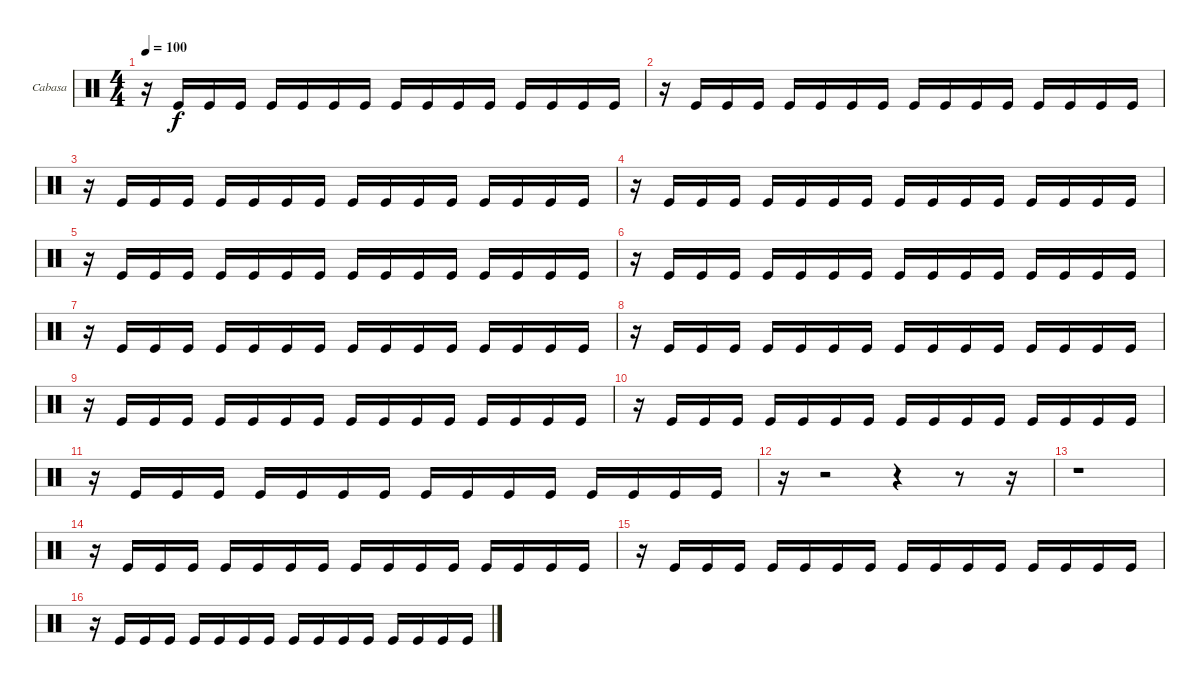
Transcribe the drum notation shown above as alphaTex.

\bracketExtendMode groupsimilarinstruments
\firstSystemTrackNameOrientation horizontal
\otherSystemsTrackNameOrientation horizontal
\track ("Cabasa" "Cabasa") {instrument percussion}
\staff {score}
\articulation defaults
\ts (4 4)
\tempo 100
\clef neutral
\ks c
r.16{dy f} "Kick (hit)".16 "Kick (hit)".16 "Kick (hit)".16 "Kick (hit)".16 "Kick (hit)".16 "Kick (hit)".16 "Kick (hit)".16 "Kick (hit)".16 "Kick (hit)".16 "Kick (hit)".16 "Kick (hit)".16 "Kick (hit)".16 "Kick (hit)".16 "Kick (hit)".16 "Kick (hit)".16 |
r.16 "Kick (hit)".16 "Kick (hit)".16 "Kick (hit)".16 "Kick (hit)".16 "Kick (hit)".16 "Kick (hit)".16 "Kick (hit)".16 "Kick (hit)".16 "Kick (hit)".16 "Kick (hit)".16 "Kick (hit)".16 "Kick (hit)".16 "Kick (hit)".16 "Kick (hit)".16 "Kick (hit)".16 |
r.16 "Kick (hit)".16 "Kick (hit)".16 "Kick (hit)".16 "Kick (hit)".16 "Kick (hit)".16 "Kick (hit)".16 "Kick (hit)".16 "Kick (hit)".16 "Kick (hit)".16 "Kick (hit)".16 "Kick (hit)".16 "Kick (hit)".16 "Kick (hit)".16 "Kick (hit)".16 "Kick (hit)".16 |
r.16 "Kick (hit)".16 "Kick (hit)".16 "Kick (hit)".16 "Kick (hit)".16 "Kick (hit)".16 "Kick (hit)".16 "Kick (hit)".16 "Kick (hit)".16 "Kick (hit)".16 "Kick (hit)".16 "Kick (hit)".16 "Kick (hit)".16 "Kick (hit)".16 "Kick (hit)".16 "Kick (hit)".16 |
r.16 "Kick (hit)".16 "Kick (hit)".16 "Kick (hit)".16 "Kick (hit)".16 "Kick (hit)".16 "Kick (hit)".16 "Kick (hit)".16 "Kick (hit)".16 "Kick (hit)".16 "Kick (hit)".16 "Kick (hit)".16 "Kick (hit)".16 "Kick (hit)".16 "Kick (hit)".16 "Kick (hit)".16 |
r.16 "Kick (hit)".16 "Kick (hit)".16 "Kick (hit)".16 "Kick (hit)".16 "Kick (hit)".16 "Kick (hit)".16 "Kick (hit)".16 "Kick (hit)".16 "Kick (hit)".16 "Kick (hit)".16 "Kick (hit)".16 "Kick (hit)".16 "Kick (hit)".16 "Kick (hit)".16 "Kick (hit)".16 |
r.16 "Kick (hit)".16 "Kick (hit)".16 "Kick (hit)".16 "Kick (hit)".16 "Kick (hit)".16 "Kick (hit)".16 "Kick (hit)".16 "Kick (hit)".16 "Kick (hit)".16 "Kick (hit)".16 "Kick (hit)".16 "Kick (hit)".16 "Kick (hit)".16 "Kick (hit)".16 "Kick (hit)".16 |
r.16 "Kick (hit)".16 "Kick (hit)".16 "Kick (hit)".16 "Kick (hit)".16 "Kick (hit)".16 "Kick (hit)".16 "Kick (hit)".16 "Kick (hit)".16 "Kick (hit)".16 "Kick (hit)".16 "Kick (hit)".16 "Kick (hit)".16 "Kick (hit)".16 "Kick (hit)".16 "Kick (hit)".16 |
r.16 "Kick (hit)".16 "Kick (hit)".16 "Kick (hit)".16 "Kick (hit)".16 "Kick (hit)".16 "Kick (hit)".16 "Kick (hit)".16 "Kick (hit)".16 "Kick (hit)".16 "Kick (hit)".16 "Kick (hit)".16 "Kick (hit)".16 "Kick (hit)".16 "Kick (hit)".16 "Kick (hit)".16 |
r.16 "Kick (hit)".16 "Kick (hit)".16 "Kick (hit)".16 "Kick (hit)".16 "Kick (hit)".16 "Kick (hit)".16 "Kick (hit)".16 "Kick (hit)".16 "Kick (hit)".16 "Kick (hit)".16 "Kick (hit)".16 "Kick (hit)".16 "Kick (hit)".16 "Kick (hit)".16 "Kick (hit)".16 |
r.16 "Kick (hit)".16 "Kick (hit)".16 "Kick (hit)".16 "Kick (hit)".16 "Kick (hit)".16 "Kick (hit)".16 "Kick (hit)".16 "Kick (hit)".16 "Kick (hit)".16 "Kick (hit)".16 "Kick (hit)".16 "Kick (hit)".16 "Kick (hit)".16 "Kick (hit)".16 "Kick (hit)".16 |
r.16 r.2 r.4 r.8 r.16 |
r.1 |
r.16 "Kick (hit)".16 "Kick (hit)".16 "Kick (hit)".16 "Kick (hit)".16 "Kick (hit)".16 "Kick (hit)".16 "Kick (hit)".16 "Kick (hit)".16 "Kick (hit)".16 "Kick (hit)".16 "Kick (hit)".16 "Kick (hit)".16 "Kick (hit)".16 "Kick (hit)".16 "Kick (hit)".16 |
r.16 "Kick (hit)".16 "Kick (hit)".16 "Kick (hit)".16 "Kick (hit)".16 "Kick (hit)".16 "Kick (hit)".16 "Kick (hit)".16 "Kick (hit)".16 "Kick (hit)".16 "Kick (hit)".16 "Kick (hit)".16 "Kick (hit)".16 "Kick (hit)".16 "Kick (hit)".16 "Kick (hit)".16 |
r.16 "Kick (hit)".16 "Kick (hit)".16 "Kick (hit)".16 "Kick (hit)".16 "Kick (hit)".16 "Kick (hit)".16 "Kick (hit)".16 "Kick (hit)".16 "Kick (hit)".16 "Kick (hit)".16 "Kick (hit)".16 "Kick (hit)".16 "Kick (hit)".16 "Kick (hit)".16 "Kick (hit)".16
